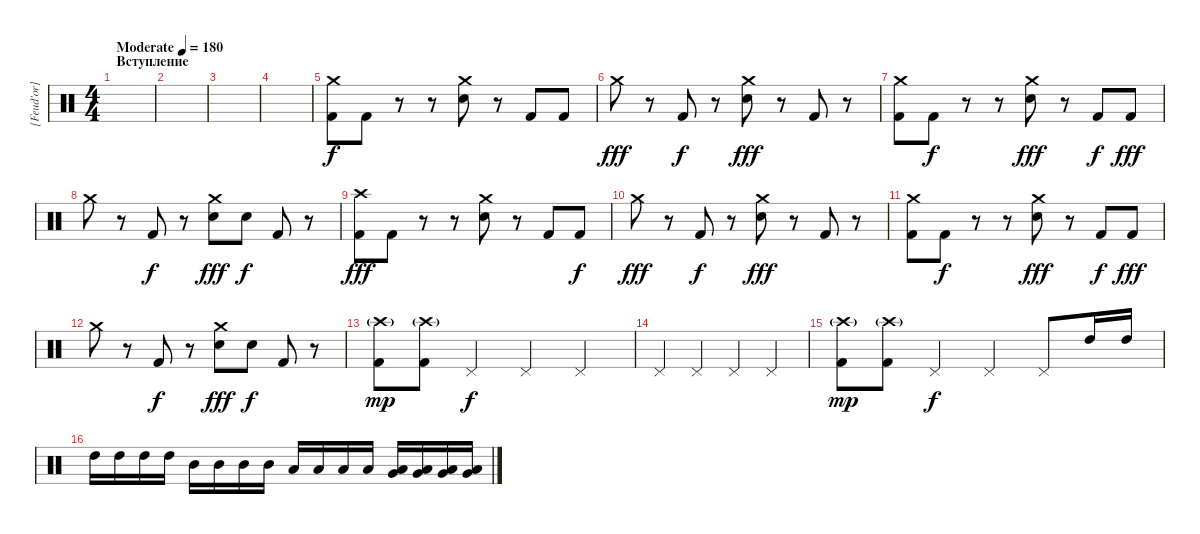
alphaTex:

\track ("[Feud'or] - Drums" "[Feud'or] ") {instrument percussion}
\staff {score}
\articulation defaults
\ts (4 4)
\section ("" "Вступление")
\tempo (180 "Moderate")
\clef neutral
\ks c
|
|
|
|
("Crash medium (hit)" "Kick (hit) 2").8 "Kick (hit) 2".8 r.8 r.8 ("Crash medium (hit)" "Snare (hit) 2").8 r.8 "Kick (hit) 2".8 "Kick (hit) 2".8{dy f} |
"Crash medium (hit)".8{dy fff} r.8 "Kick (hit) 2".8{dy f} r.8 ("Crash medium (hit)" "Snare (hit) 2").8{dy fff} r.8 "Kick (hit) 2".8 r.8 |
("Crash medium (hit)" "Kick (hit) 2").8 "Kick (hit) 2".8{dy f} r.8 r.8 ("Crash medium (hit)" "Snare (hit) 2").8{dy fff} r.8 "Kick (hit) 2".8{dy f} "Kick (hit) 2".8{dy fff} |
"Crash medium (hit)".8 r.8 "Kick (hit) 2".8{dy f} r.8 ("Crash medium (hit)" "Snare (hit) 2").8{dy fff} "Snare (hit) 2".8{dy f} "Kick (hit) 2".8 r.8 |
("Crash high (hit)" "Kick (hit) 2").8{dy fff} "Kick (hit) 2".8 r.8 r.8 ("Crash medium (hit)" "Snare (hit) 2").8 r.8 "Kick (hit) 2".8 "Kick (hit) 2".8{dy f} |
"Crash medium (hit)".8{dy fff} r.8 "Kick (hit) 2".8{dy f} r.8 ("Crash medium (hit)" "Snare (hit) 2").8{dy fff} r.8 "Kick (hit) 2".8 r.8 |
("Crash medium (hit)" "Kick (hit) 2").8 "Kick (hit) 2".8{dy f} r.8 r.8 ("Crash medium (hit)" "Snare (hit) 2").8{dy fff} r.8 "Kick (hit) 2".8{dy f} "Kick (hit) 2".8{dy fff} |
"Crash medium (hit)".8 r.8 "Kick (hit) 2".8{dy f} r.8 ("Crash medium (hit)" "Snare (hit) 2").8{dy fff} "Snare (hit) 2".8{dy f} "Kick (hit) 2".8 r.8 |
("Crash high (hit)"{g} "Kick (hit) 2").8{dy mp} ("Crash high (hit)"{g} "Kick (hit) 2").8 "Pedal Hi-Hat (hit)".4{dy f} "Pedal Hi-Hat (hit)".4 "Pedal Hi-Hat (hit)".4 |
"Pedal Hi-Hat (hit)".4 "Pedal Hi-Hat (hit)".4 "Pedal Hi-Hat (hit)".4 "Pedal Hi-Hat (hit)".4 |
("Crash high (hit)"{g} "Kick (hit) 2").8{dy mp} ("Crash high (hit)"{g} "Kick (hit) 2").8 "Pedal Hi-Hat (hit)".4{dy f} "Pedal Hi-Hat (hit)".4 "Pedal Hi-Hat (hit)".8 "High Tom (hit)".16 "High Tom (hit)".16 |
"High Tom (hit)".16 "High Tom (hit)".16 "High Tom (hit)".16 "High Tom (hit)".16 "Mid Tom (hit)".16 "Mid Tom (hit)".16 "Mid Tom (hit)".16 "Mid Tom (hit)".16 "Low Tom (hit)".16 "Low Tom (hit)".16 "Low Tom (hit)".16 "Low Tom (hit)".16 ("Very Low Tom (hit)" "Low Floor Tom (hit)").16 ("Very Low Tom (hit)" "Low Floor Tom (hit)").16 ("Very Low Tom (hit)" "Low Floor Tom (hit)").16 ("Very Low Tom (hit)" "Low Floor Tom (hit)").16
